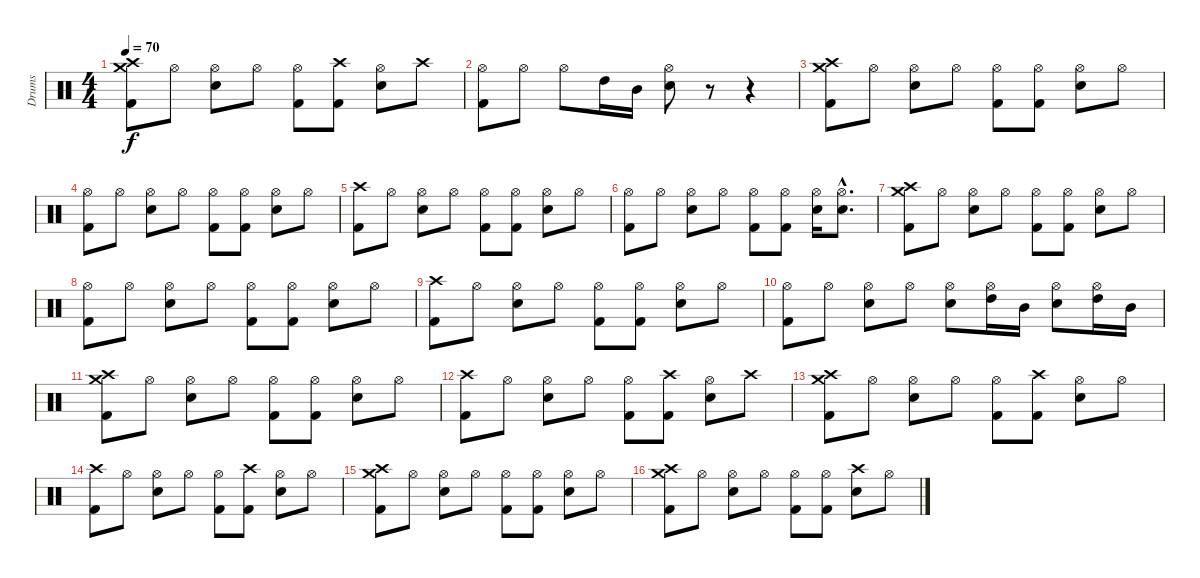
\track ("Drums" "Drums") {instrument percussion}
\staff {score}
\articulation defaults
\ts (4 4)
\tempo 70
\clef neutral
\ks c
("Crash high (hit)" "Crash medium (hit)" "Kick (hit) 2").8{dy f} "Hi-Hat (open)".8 ("Hi-Hat (open)" "Electric Snare (hit)").8 "Hi-Hat (open)".8 ("Hi-Hat (open)" "Kick (hit) 2").8 ("Crash high (hit)" "Kick (hit) 2").8 ("Hi-Hat (open)" "Electric Snare (hit)").8 "Crash high (hit)".8 |
("Hi-Hat (open)" "Kick (hit) 2").8 "Hi-Hat (open)".8 "Hi-Hat (open)".8 "High Tom (hit)".16 "Mid Tom (hit)".16 ("Hi-Hat (open)" "Electric Snare (hit)").8 r.8 r.4 |
("Crash high (hit)" "Crash medium (hit)" "Kick (hit) 2").8 "Hi-Hat (open)".8 ("Hi-Hat (open)" "Electric Snare (hit)").8 "Hi-Hat (open)".8 ("Hi-Hat (open)" "Kick (hit) 2").8 ("Hi-Hat (open)" "Kick (hit) 2").8 ("Hi-Hat (open)" "Electric Snare (hit)").8 "Hi-Hat (open)".8 |
("Hi-Hat (open)" "Kick (hit) 2").8 "Hi-Hat (open)".8 ("Hi-Hat (open)" "Electric Snare (hit)").8 "Hi-Hat (open)".8 ("Hi-Hat (open)" "Kick (hit) 2").8 ("Hi-Hat (open)" "Kick (hit) 2").8 ("Hi-Hat (open)" "Electric Snare (hit)").8 "Hi-Hat (open)".8 |
("Crash high (hit)" "Kick (hit) 2").8 "Hi-Hat (open)".8 ("Hi-Hat (open)" "Electric Snare (hit)").8 "Hi-Hat (open)".8 ("Hi-Hat (open)" "Kick (hit) 2").8 ("Hi-Hat (open)" "Kick (hit) 2").8 ("Hi-Hat (open)" "Electric Snare (hit)").8 "Hi-Hat (open)".8 |
("Hi-Hat (open)" "Kick (hit) 2").8 "Hi-Hat (open)".8 ("Hi-Hat (open)" "Electric Snare (hit)").8 "Hi-Hat (open)".8 ("Hi-Hat (open)" "Kick (hit) 2").8 ("Hi-Hat (open)" "Kick (hit) 2").8 ("Hi-Hat (open)" "Electric Snare (hit)").16 ("Hi-Hat (open)"{hac} "Electric Snare (hit)"{hac}).8{d} |
("Crash high (hit)" "Crash medium (hit)" "Kick (hit) 2").8 "Hi-Hat (open)".8 ("Hi-Hat (open)" "Electric Snare (hit)").8 "Hi-Hat (open)".8 ("Hi-Hat (open)" "Kick (hit) 2").8 ("Hi-Hat (open)" "Kick (hit) 2").8 ("Hi-Hat (open)" "Electric Snare (hit)").8 "Hi-Hat (open)".8 |
("Hi-Hat (open)" "Kick (hit) 2").8 "Hi-Hat (open)".8 ("Hi-Hat (open)" "Electric Snare (hit)").8 "Hi-Hat (open)".8 ("Hi-Hat (open)" "Kick (hit) 2").8 ("Hi-Hat (open)" "Kick (hit) 2").8 ("Hi-Hat (open)" "Electric Snare (hit)").8 "Hi-Hat (open)".8 |
("Crash high (hit)" "Kick (hit) 2").8 "Hi-Hat (open)".8 ("Hi-Hat (open)" "Electric Snare (hit)").8 "Hi-Hat (open)".8 ("Hi-Hat (open)" "Kick (hit) 2").8 ("Hi-Hat (open)" "Kick (hit) 2").8 ("Hi-Hat (open)" "Electric Snare (hit)").8 "Hi-Hat (open)".8 |
("Hi-Hat (open)" "Kick (hit) 2").8 "Hi-Hat (open)".8 ("Hi-Hat (open)" "Electric Snare (hit)").8 "Hi-Hat (open)".8 ("Hi-Hat (open)" "Electric Snare (hit)").8 ("Hi-Hat (open)" "High Tom (hit)").16 "Mid Tom (hit)".16 ("Hi-Hat (open)" "Electric Snare (hit)").8 ("Hi-Hat (open)" "High Tom (hit)").16 "Mid Tom (hit)".16 |
("Crash high (hit)" "Crash medium (hit)" "Kick (hit) 2").8 "Hi-Hat (open)".8 ("Hi-Hat (open)" "Electric Snare (hit)").8 "Hi-Hat (open)".8 ("Hi-Hat (open)" "Kick (hit) 2").8 ("Hi-Hat (open)" "Kick (hit) 2").8 ("Hi-Hat (open)" "Electric Snare (hit)").8 "Hi-Hat (open)".8 |
("Crash high (hit)" "Kick (hit) 2").8 "Hi-Hat (open)".8 ("Hi-Hat (open)" "Electric Snare (hit)").8 "Hi-Hat (open)".8 ("Hi-Hat (open)" "Kick (hit) 2").8 ("Crash high (hit)" "Kick (hit) 2").8 ("Hi-Hat (open)" "Electric Snare (hit)").8 "Crash high (hit)".8 |
("Crash high (hit)" "Crash medium (hit)" "Kick (hit) 2").8 "Hi-Hat (open)".8 ("Hi-Hat (open)" "Electric Snare (hit)").8 "Hi-Hat (open)".8 ("Hi-Hat (open)" "Kick (hit) 2").8 ("Crash high (hit)" "Kick (hit) 2").8 ("Hi-Hat (open)" "Electric Snare (hit)").8 "Hi-Hat (open)".8 |
("Crash high (hit)" "Kick (hit) 2").8 "Hi-Hat (open)".8 ("Hi-Hat (open)" "Electric Snare (hit)").8 "Hi-Hat (open)".8 ("Hi-Hat (open)" "Kick (hit) 2").8 ("Crash high (hit)" "Kick (hit) 2").8 ("Hi-Hat (open)" "Electric Snare (hit)").8 "Hi-Hat (open)".8 |
("Crash high (hit)" "Crash medium (hit)" "Kick (hit) 2").8 "Hi-Hat (open)".8 ("Hi-Hat (open)" "Electric Snare (hit)").8 "Hi-Hat (open)".8 ("Hi-Hat (open)" "Kick (hit) 2").8 ("Hi-Hat (open)" "Kick (hit) 2").8 ("Hi-Hat (open)" "Electric Snare (hit)").8 "Hi-Hat (open)".8 |
("Crash high (hit)" "Crash medium (hit)" "Kick (hit) 2").8 "Hi-Hat (open)".8 ("Hi-Hat (open)" "Electric Snare (hit)").8 "Hi-Hat (open)".8 ("Hi-Hat (open)" "Kick (hit) 2").8 ("Hi-Hat (open)" "Kick (hit) 2").8 ("Crash high (hit)" "Electric Snare (hit)").8 "Hi-Hat (open)".8
